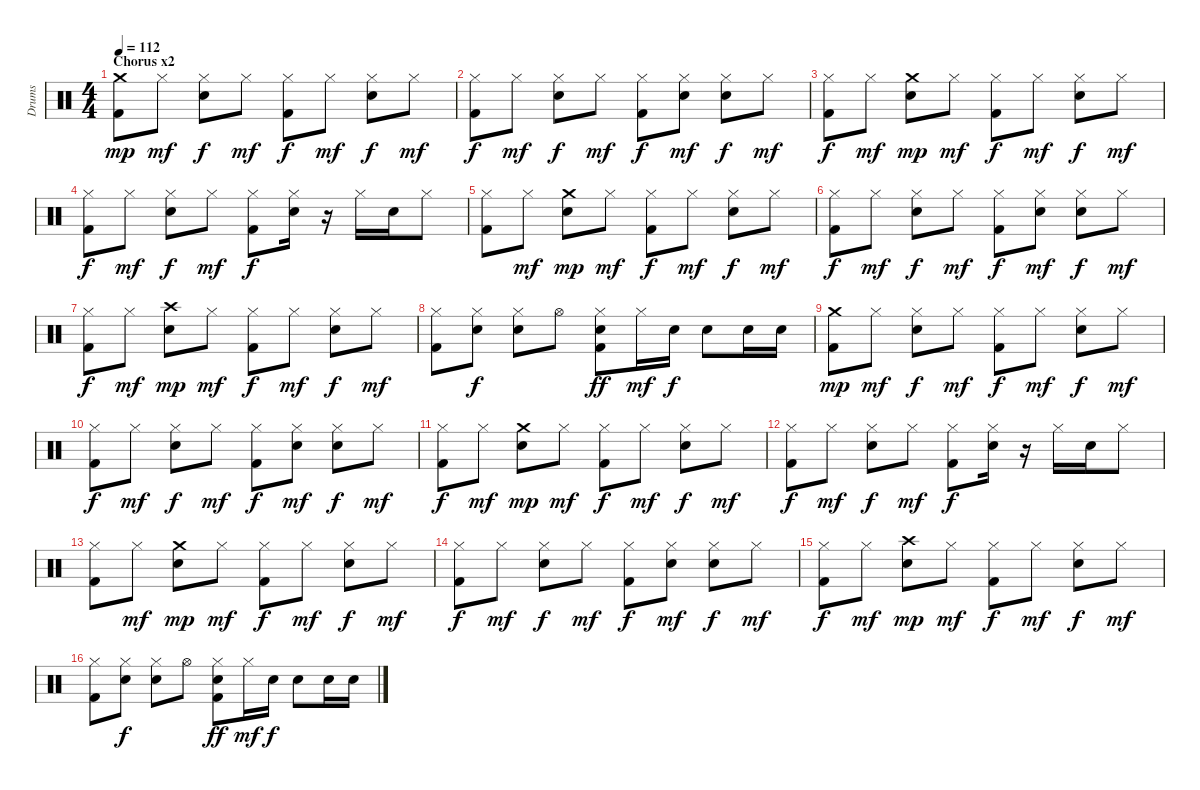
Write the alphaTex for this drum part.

\track ("Drums" "Drums") {instrument percussion}
\staff {score}
\articulation defaults
\ts (4 4)
\section ("" "Chorus x2")
\tempo 112
\clef neutral
\ks c
("Crash medium (hit)" "Kick (hit) 2").8{dy mp} "Hi-Hat (closed)".8{dy mf} ("Hi-Hat (closed)" "Snare (hit) 2").8{dy f} "Hi-Hat (closed)".8{dy mf} ("Hi-Hat (closed)" "Kick (hit) 2").8{dy f} "Hi-Hat (closed)".8{dy mf} ("Hi-Hat (closed)" "Snare (hit) 2").8{dy f} "Hi-Hat (closed)".8{dy mf} |
("Hi-Hat (closed)" "Kick (hit) 2").8{dy f} "Hi-Hat (closed)".8{dy mf} ("Hi-Hat (closed)" "Snare (hit) 2").8{dy f} "Hi-Hat (closed)".8{dy mf} ("Hi-Hat (closed)" "Kick (hit) 2").8{dy f} ("Hi-Hat (closed)" "Snare (hit) 2").8{dy mf} ("Hi-Hat (closed)" "Snare (hit) 2").8{dy f} "Hi-Hat (closed)".8{dy mf} |
("Hi-Hat (closed)" "Kick (hit) 2").8{dy f} "Hi-Hat (closed)".8{dy mf} ("Crash medium (hit)" "Snare (hit) 2").8{dy mp} "Hi-Hat (closed)".8{dy mf} ("Hi-Hat (closed)" "Kick (hit) 2").8{dy f} "Hi-Hat (closed)".8{dy mf} ("Hi-Hat (closed)" "Snare (hit) 2").8{dy f} "Hi-Hat (closed)".8{dy mf} |
("Hi-Hat (closed)" "Kick (hit) 2").8{dy f} "Hi-Hat (closed)".8{dy mf} ("Hi-Hat (closed)" "Snare (hit) 2").8{dy f} "Hi-Hat (closed)".8{dy mf} ("Hi-Hat (closed)" "Kick (hit) 2").8{dy f} ("Hi-Hat (closed)" "Snare (hit) 2").16 r.16 "Hi-Hat (closed)".16 "Snare (hit) 2".16 "Hi-Hat (closed)".8 |
("Hi-Hat (closed)" "Kick (hit) 2").8 "Hi-Hat (closed)".8{dy mf} ("Crash medium (hit)" "Snare (hit) 2").8{dy mp} "Hi-Hat (closed)".8{dy mf} ("Hi-Hat (closed)" "Kick (hit) 2").8{dy f} "Hi-Hat (closed)".8{dy mf} ("Hi-Hat (closed)" "Snare (hit) 2").8{dy f} "Hi-Hat (closed)".8{dy mf} |
("Hi-Hat (closed)" "Kick (hit) 2").8{dy f} "Hi-Hat (closed)".8{dy mf} ("Hi-Hat (closed)" "Snare (hit) 2").8{dy f} "Hi-Hat (closed)".8{dy mf} ("Hi-Hat (closed)" "Kick (hit) 2").8{dy f} ("Hi-Hat (closed)" "Snare (hit) 2").8{dy mf} ("Hi-Hat (closed)" "Snare (hit) 2").8{dy f} "Hi-Hat (closed)".8{dy mf} |
("Hi-Hat (closed)" "Kick (hit) 2").8{dy f} "Hi-Hat (closed)".8{dy mf} ("Crash high (hit)" "Snare (hit) 2").8{dy mp} "Hi-Hat (closed)".8{dy mf} ("Hi-Hat (closed)" "Kick (hit) 2").8{dy f} "Hi-Hat (closed)".8{dy mf} ("Hi-Hat (closed)" "Snare (hit) 2").8{dy f} "Hi-Hat (closed)".8{dy mf} |
("Hi-Hat (closed)" "Kick (hit) 2").8 ("Hi-Hat (closed)" "Snare (hit) 2").8{dy f} ("Hi-Hat (closed)" "Snare (hit) 2").8 "Hi-Hat (open)".8 ("Hi-Hat (closed)" "Snare (hit) 2" "Kick (hit) 2").8{dy ff} "Hi-Hat (closed)".16{dy mf} "Snare (hit) 2".16{dy f} "Snare (hit) 2".8 "Snare (hit) 2".16 "Snare (hit) 2".16 |
("Crash medium (hit)" "Kick (hit) 2").8{dy mp} "Hi-Hat (closed)".8{dy mf} ("Hi-Hat (closed)" "Snare (hit) 2").8{dy f} "Hi-Hat (closed)".8{dy mf} ("Hi-Hat (closed)" "Kick (hit) 2").8{dy f} "Hi-Hat (closed)".8{dy mf} ("Hi-Hat (closed)" "Snare (hit) 2").8{dy f} "Hi-Hat (closed)".8{dy mf} |
("Hi-Hat (closed)" "Kick (hit) 2").8{dy f} "Hi-Hat (closed)".8{dy mf} ("Hi-Hat (closed)" "Snare (hit) 2").8{dy f} "Hi-Hat (closed)".8{dy mf} ("Hi-Hat (closed)" "Kick (hit) 2").8{dy f} ("Hi-Hat (closed)" "Snare (hit) 2").8{dy mf} ("Hi-Hat (closed)" "Snare (hit) 2").8{dy f} "Hi-Hat (closed)".8{dy mf} |
("Hi-Hat (closed)" "Kick (hit) 2").8{dy f} "Hi-Hat (closed)".8{dy mf} ("Crash medium (hit)" "Snare (hit) 2").8{dy mp} "Hi-Hat (closed)".8{dy mf} ("Hi-Hat (closed)" "Kick (hit) 2").8{dy f} "Hi-Hat (closed)".8{dy mf} ("Hi-Hat (closed)" "Snare (hit) 2").8{dy f} "Hi-Hat (closed)".8{dy mf} |
("Hi-Hat (closed)" "Kick (hit) 2").8{dy f} "Hi-Hat (closed)".8{dy mf} ("Hi-Hat (closed)" "Snare (hit) 2").8{dy f} "Hi-Hat (closed)".8{dy mf} ("Hi-Hat (closed)" "Kick (hit) 2").8{dy f} ("Hi-Hat (closed)" "Snare (hit) 2").16 r.16 "Hi-Hat (closed)".16 "Snare (hit) 2".16 "Hi-Hat (closed)".8 |
("Hi-Hat (closed)" "Kick (hit) 2").8 "Hi-Hat (closed)".8{dy mf} ("Crash medium (hit)" "Snare (hit) 2").8{dy mp} "Hi-Hat (closed)".8{dy mf} ("Hi-Hat (closed)" "Kick (hit) 2").8{dy f} "Hi-Hat (closed)".8{dy mf} ("Hi-Hat (closed)" "Snare (hit) 2").8{dy f} "Hi-Hat (closed)".8{dy mf} |
("Hi-Hat (closed)" "Kick (hit) 2").8{dy f} "Hi-Hat (closed)".8{dy mf} ("Hi-Hat (closed)" "Snare (hit) 2").8{dy f} "Hi-Hat (closed)".8{dy mf} ("Hi-Hat (closed)" "Kick (hit) 2").8{dy f} ("Hi-Hat (closed)" "Snare (hit) 2").8{dy mf} ("Hi-Hat (closed)" "Snare (hit) 2").8{dy f} "Hi-Hat (closed)".8{dy mf} |
("Hi-Hat (closed)" "Kick (hit) 2").8{dy f} "Hi-Hat (closed)".8{dy mf} ("Crash high (hit)" "Snare (hit) 2").8{dy mp} "Hi-Hat (closed)".8{dy mf} ("Hi-Hat (closed)" "Kick (hit) 2").8{dy f} "Hi-Hat (closed)".8{dy mf} ("Hi-Hat (closed)" "Snare (hit) 2").8{dy f} "Hi-Hat (closed)".8{dy mf} |
("Hi-Hat (closed)" "Kick (hit) 2").8 ("Hi-Hat (closed)" "Snare (hit) 2").8{dy f} ("Hi-Hat (closed)" "Snare (hit) 2").8 "Hi-Hat (open)".8 ("Hi-Hat (closed)" "Snare (hit) 2" "Kick (hit) 2").8{dy ff} "Hi-Hat (closed)".16{dy mf} "Snare (hit) 2".16{dy f} "Snare (hit) 2".8 "Snare (hit) 2".16 "Snare (hit) 2".16
